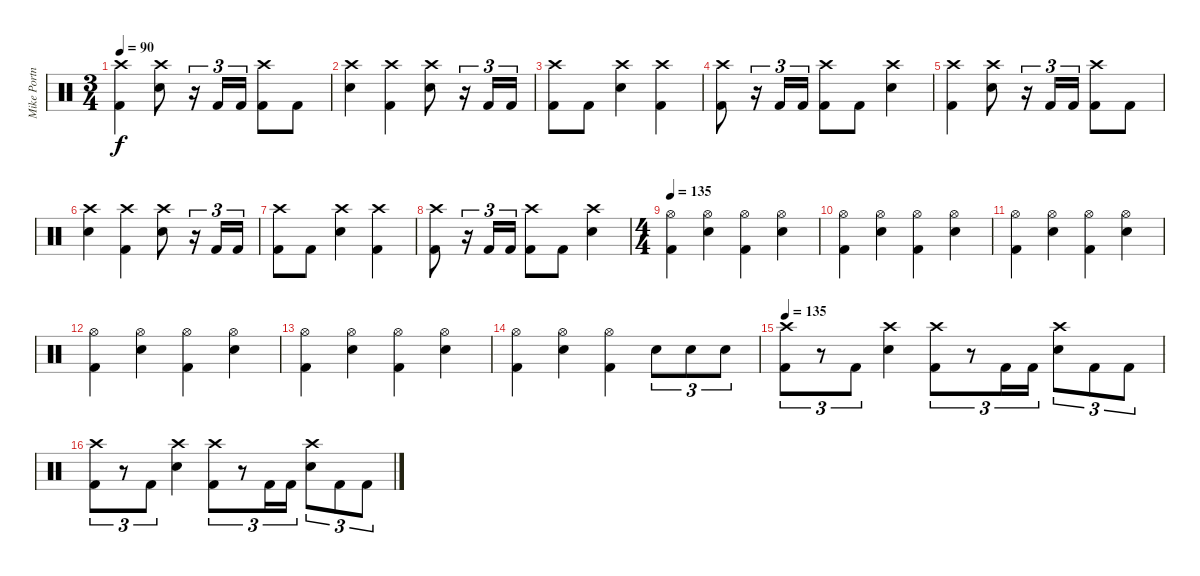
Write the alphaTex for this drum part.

\track ("Mike Portnoy" "Mike Portn") {instrument percussion}
\staff {score}
\articulation defaults
\ts (3 4)
\tempo 90
\clef neutral
\ks c
("Crash high (hit)" "Kick (hit) 2").4{dy f} ("Crash high (hit)" "Snare (hit) 2").8 r.16{tu (3 2)} "Kick (hit) 2".16{tu (3 2)} "Kick (hit) 2".16{tu (3 2)} ("Crash high (hit)" "Kick (hit) 2").8 "Kick (hit) 2".8 |
("Crash high (hit)" "Snare (hit) 2").4 ("Crash high (hit)" "Kick (hit) 2").4 ("Crash high (hit)" "Snare (hit) 2").8 r.16{tu (3 2)} "Kick (hit) 2".16{tu (3 2)} "Kick (hit) 2".16{tu (3 2)} |
("Crash high (hit)" "Kick (hit) 2").8 "Kick (hit) 2".8 ("Crash high (hit)" "Snare (hit) 2").4 ("Crash high (hit)" "Kick (hit) 2").4 |
("Crash high (hit)" "Kick (hit) 2").8 r.16{tu (3 2)} "Kick (hit) 2".16{tu (3 2)} "Kick (hit) 2".16{tu (3 2)} ("Crash high (hit)" "Kick (hit) 2").8 "Kick (hit) 2".8 ("Crash high (hit)" "Snare (hit) 2").4 |
("Crash high (hit)" "Kick (hit) 2").4 ("Crash high (hit)" "Snare (hit) 2").8 r.16{tu (3 2)} "Kick (hit) 2".16{tu (3 2)} "Kick (hit) 2".16{tu (3 2)} ("Crash high (hit)" "Kick (hit) 2").8 "Kick (hit) 2".8 |
("Crash high (hit)" "Snare (hit) 2").4 ("Crash high (hit)" "Kick (hit) 2").4 ("Crash high (hit)" "Snare (hit) 2").8 r.16{tu (3 2)} "Kick (hit) 2".16{tu (3 2)} "Kick (hit) 2".16{tu (3 2)} |
("Crash high (hit)" "Kick (hit) 2").8 "Kick (hit) 2".8 ("Crash high (hit)" "Snare (hit) 2").4 ("Crash high (hit)" "Kick (hit) 2").4 |
("Crash high (hit)" "Kick (hit) 2").8 r.16{tu (3 2)} "Kick (hit) 2".16{tu (3 2)} "Kick (hit) 2".16{tu (3 2)} ("Crash high (hit)" "Kick (hit) 2").8 "Kick (hit) 2".8 ("Crash high (hit)" "Snare (hit) 2").4 |
\ts (4 4)
\tempo 135
("Hi-Hat (open)" "Kick (hit) 2").4 ("Hi-Hat (open)" "Snare (hit) 2").4 ("Hi-Hat (open)" "Kick (hit) 2").4 ("Hi-Hat (open)" "Snare (hit) 2").4 |
("Hi-Hat (open)" "Kick (hit) 2").4 ("Hi-Hat (open)" "Snare (hit) 2").4 ("Hi-Hat (open)" "Kick (hit) 2").4 ("Hi-Hat (open)" "Snare (hit) 2").4 |
("Hi-Hat (open)" "Kick (hit) 2").4 ("Hi-Hat (open)" "Snare (hit) 2").4 ("Hi-Hat (open)" "Kick (hit) 2").4 ("Hi-Hat (open)" "Snare (hit) 2").4 |
("Hi-Hat (open)" "Kick (hit) 2").4 ("Hi-Hat (open)" "Snare (hit) 2").4 ("Hi-Hat (open)" "Kick (hit) 2").4 ("Hi-Hat (open)" "Snare (hit) 2").4 |
("Hi-Hat (open)" "Kick (hit) 2").4 ("Hi-Hat (open)" "Snare (hit) 2").4 ("Hi-Hat (open)" "Kick (hit) 2").4 ("Hi-Hat (open)" "Snare (hit) 2").4 |
("Hi-Hat (open)" "Kick (hit) 2").4 ("Hi-Hat (open)" "Snare (hit) 2").4 ("Hi-Hat (open)" "Kick (hit) 2").4 "Snare (hit) 2".8{tu (3 2)} "Snare (hit) 2".8{tu (3 2)} "Snare (hit) 2".8{tu (3 2)} |
\tempo 135
("Crash high (hit)" "Kick (hit) 2").8{tu (3 2)} r.8{tu (3 2)} "Kick (hit) 2".8{tu (3 2)} ("Crash high (hit)" "Snare (hit) 2").4 ("Crash high (hit)" "Kick (hit) 2").8{tu (3 2)} r.8{tu (3 2)} "Kick (hit) 2".16{tu (3 2)} "Kick (hit) 2".16{tu (3 2)} ("Crash high (hit)" "Snare (hit) 2").8{tu (3 2)} "Kick (hit) 2".8{tu (3 2)} "Kick (hit) 2".8{tu (3 2)} |
("Crash high (hit)" "Kick (hit) 2").8{tu (3 2)} r.8{tu (3 2)} "Kick (hit) 2".8{tu (3 2)} ("Crash high (hit)" "Snare (hit) 2").4 ("Crash high (hit)" "Kick (hit) 2").8{tu (3 2)} r.8{tu (3 2)} "Kick (hit) 2".16{tu (3 2)} "Kick (hit) 2".16{tu (3 2)} ("Crash high (hit)" "Snare (hit) 2").8{tu (3 2)} "Kick (hit) 2".8{tu (3 2)} "Kick (hit) 2".8{tu (3 2)}
